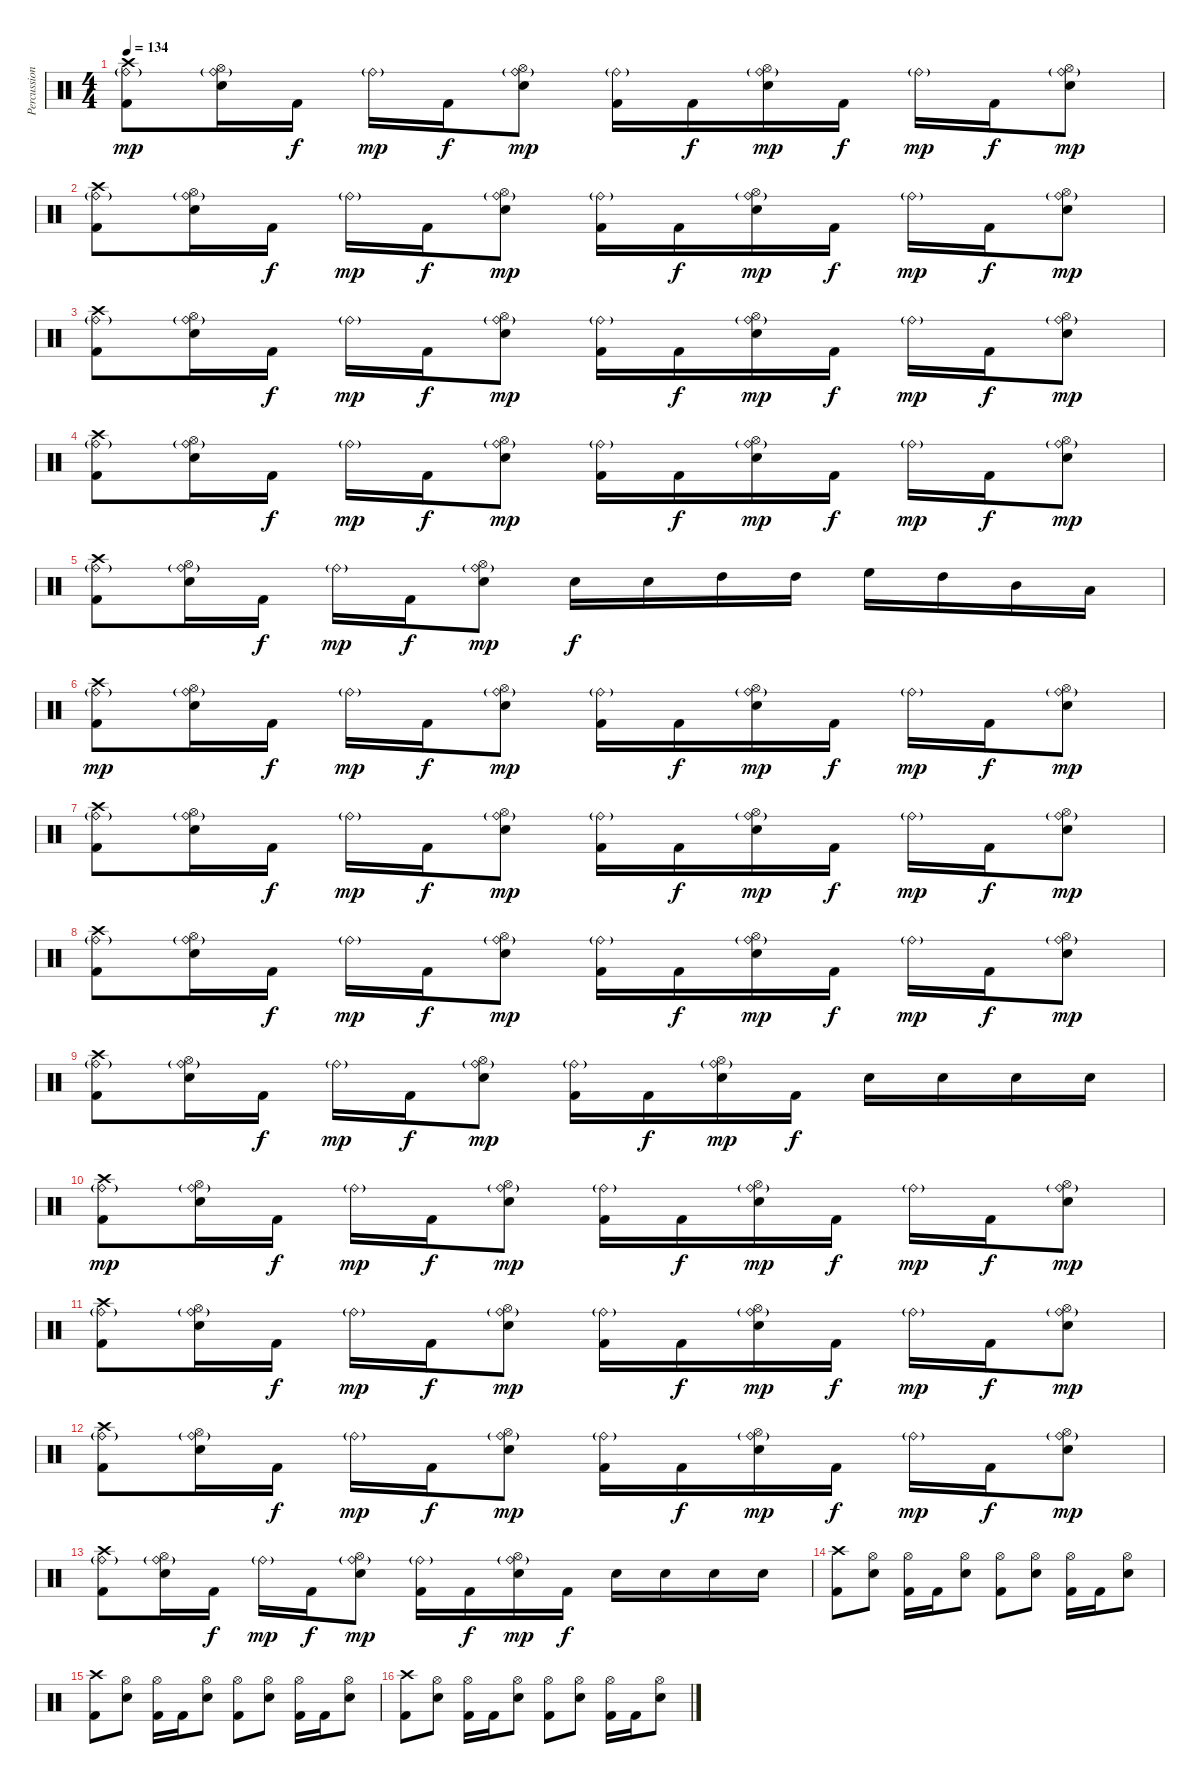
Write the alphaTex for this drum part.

\track ("Percussion" "Percussion") {instrument percussion}
\staff {score}
\articulation defaults
\ts (4 4)
\tempo 134
\clef neutral
\ks aminor
("Crash high (hit)" "Ride (bell)"{g} "Kick (hit) 2").8{dy mp} ("Hi-Hat (open)" "Ride (bell)"{g} "Electric Snare (hit)").16 "Kick (hit) 2".16{dy f} "Ride (bell)"{g}.16{dy mp} "Kick (hit) 2".16{dy f} ("Hi-Hat (open)" "Ride (bell)"{g} "Electric Snare (hit)").8{dy mp} ("Ride (bell)"{g} "Kick (hit) 2").16 "Kick (hit) 2".16{dy f} ("Hi-Hat (open)" "Ride (bell)"{g} "Electric Snare (hit)").16{dy mp} "Kick (hit) 2".16{dy f} "Ride (bell)"{g}.16{dy mp} "Kick (hit) 2".16{dy f} ("Hi-Hat (open)" "Ride (bell)"{g} "Electric Snare (hit)").8{dy mp} |
("Crash high (hit)" "Ride (bell)"{g} "Kick (hit) 2").8 ("Hi-Hat (open)" "Ride (bell)"{g} "Electric Snare (hit)").16 "Kick (hit) 2".16{dy f} "Ride (bell)"{g}.16{dy mp} "Kick (hit) 2".16{dy f} ("Hi-Hat (open)" "Ride (bell)"{g} "Electric Snare (hit)").8{dy mp} ("Ride (bell)"{g} "Kick (hit) 2").16 "Kick (hit) 2".16{dy f} ("Hi-Hat (open)" "Ride (bell)"{g} "Electric Snare (hit)").16{dy mp} "Kick (hit) 2".16{dy f} "Ride (bell)"{g}.16{dy mp} "Kick (hit) 2".16{dy f} ("Hi-Hat (open)" "Ride (bell)"{g} "Electric Snare (hit)").8{dy mp} |
("Crash high (hit)" "Ride (bell)"{g} "Kick (hit) 2").8 ("Hi-Hat (open)" "Ride (bell)"{g} "Electric Snare (hit)").16 "Kick (hit) 2".16{dy f} "Ride (bell)"{g}.16{dy mp} "Kick (hit) 2".16{dy f} ("Hi-Hat (open)" "Ride (bell)"{g} "Electric Snare (hit)").8{dy mp} ("Ride (bell)"{g} "Kick (hit) 2").16 "Kick (hit) 2".16{dy f} ("Hi-Hat (open)" "Ride (bell)"{g} "Electric Snare (hit)").16{dy mp} "Kick (hit) 2".16{dy f} "Ride (bell)"{g}.16{dy mp} "Kick (hit) 2".16{dy f} ("Hi-Hat (open)" "Ride (bell)"{g} "Electric Snare (hit)").8{dy mp} |
("Crash high (hit)" "Ride (bell)"{g} "Kick (hit) 2").8 ("Hi-Hat (open)" "Ride (bell)"{g} "Electric Snare (hit)").16 "Kick (hit) 2".16{dy f} "Ride (bell)"{g}.16{dy mp} "Kick (hit) 2".16{dy f} ("Hi-Hat (open)" "Ride (bell)"{g} "Electric Snare (hit)").8{dy mp} ("Ride (bell)"{g} "Kick (hit) 2").16 "Kick (hit) 2".16{dy f} ("Hi-Hat (open)" "Ride (bell)"{g} "Electric Snare (hit)").16{dy mp} "Kick (hit) 2".16{dy f} "Ride (bell)"{g}.16{dy mp} "Kick (hit) 2".16{dy f} ("Hi-Hat (open)" "Ride (bell)"{g} "Electric Snare (hit)").8{dy mp} |
("Crash high (hit)" "Ride (bell)"{g} "Kick (hit) 2").8 ("Hi-Hat (open)" "Ride (bell)"{g} "Electric Snare (hit)").16 "Kick (hit) 2".16{dy f} "Ride (bell)"{g}.16{dy mp} "Kick (hit) 2".16{dy f} ("Hi-Hat (open)" "Ride (bell)"{g} "Electric Snare (hit)").8{dy mp} "Electric Snare (hit)".16{dy f} "Electric Snare (hit)".16 "High Tom (hit)".16 "High Tom (hit)".16 "High Floor Tom (hit)".16 "High Tom (hit)".16 "Mid Tom (hit)".16 "Low Tom (hit)".16 |
("Crash high (hit)" "Ride (bell)"{g} "Kick (hit) 2").8{dy mp} ("Hi-Hat (open)" "Ride (bell)"{g} "Electric Snare (hit)").16 "Kick (hit) 2".16{dy f} "Ride (bell)"{g}.16{dy mp} "Kick (hit) 2".16{dy f} ("Hi-Hat (open)" "Ride (bell)"{g} "Electric Snare (hit)").8{dy mp} ("Ride (bell)"{g} "Kick (hit) 2").16 "Kick (hit) 2".16{dy f} ("Hi-Hat (open)" "Ride (bell)"{g} "Electric Snare (hit)").16{dy mp} "Kick (hit) 2".16{dy f} "Ride (bell)"{g}.16{dy mp} "Kick (hit) 2".16{dy f} ("Hi-Hat (open)" "Ride (bell)"{g} "Electric Snare (hit)").8{dy mp} |
("Crash high (hit)" "Ride (bell)"{g} "Kick (hit) 2").8 ("Hi-Hat (open)" "Ride (bell)"{g} "Electric Snare (hit)").16 "Kick (hit) 2".16{dy f} "Ride (bell)"{g}.16{dy mp} "Kick (hit) 2".16{dy f} ("Hi-Hat (open)" "Ride (bell)"{g} "Electric Snare (hit)").8{dy mp} ("Ride (bell)"{g} "Kick (hit) 2").16 "Kick (hit) 2".16{dy f} ("Hi-Hat (open)" "Ride (bell)"{g} "Electric Snare (hit)").16{dy mp} "Kick (hit) 2".16{dy f} "Ride (bell)"{g}.16{dy mp} "Kick (hit) 2".16{dy f} ("Hi-Hat (open)" "Ride (bell)"{g} "Electric Snare (hit)").8{dy mp} |
("Crash high (hit)" "Ride (bell)"{g} "Kick (hit) 2").8 ("Hi-Hat (open)" "Ride (bell)"{g} "Electric Snare (hit)").16 "Kick (hit) 2".16{dy f} "Ride (bell)"{g}.16{dy mp} "Kick (hit) 2".16{dy f} ("Hi-Hat (open)" "Ride (bell)"{g} "Electric Snare (hit)").8{dy mp} ("Ride (bell)"{g} "Kick (hit) 2").16 "Kick (hit) 2".16{dy f} ("Hi-Hat (open)" "Ride (bell)"{g} "Electric Snare (hit)").16{dy mp} "Kick (hit) 2".16{dy f} "Ride (bell)"{g}.16{dy mp} "Kick (hit) 2".16{dy f} ("Hi-Hat (open)" "Ride (bell)"{g} "Electric Snare (hit)").8{dy mp} |
("Crash high (hit)" "Ride (bell)"{g} "Kick (hit) 2").8 ("Hi-Hat (open)" "Ride (bell)"{g} "Electric Snare (hit)").16 "Kick (hit) 2".16{dy f} "Ride (bell)"{g}.16{dy mp} "Kick (hit) 2".16{dy f} ("Hi-Hat (open)" "Ride (bell)"{g} "Electric Snare (hit)").8{dy mp} ("Ride (bell)"{g} "Kick (hit) 2").16 "Kick (hit) 2".16{dy f} ("Hi-Hat (open)" "Ride (bell)"{g} "Electric Snare (hit)").16{dy mp} "Kick (hit) 2".16{dy f} "Electric Snare (hit)".16 "Electric Snare (hit)".16 "Electric Snare (hit)".16 "Electric Snare (hit)".16 |
("Crash high (hit)" "Ride (bell)"{g} "Kick (hit) 2").8{dy mp} ("Hi-Hat (open)" "Ride (bell)"{g} "Electric Snare (hit)").16 "Kick (hit) 2".16{dy f} "Ride (bell)"{g}.16{dy mp} "Kick (hit) 2".16{dy f} ("Hi-Hat (open)" "Ride (bell)"{g} "Electric Snare (hit)").8{dy mp} ("Ride (bell)"{g} "Kick (hit) 2").16 "Kick (hit) 2".16{dy f} ("Hi-Hat (open)" "Ride (bell)"{g} "Electric Snare (hit)").16{dy mp} "Kick (hit) 2".16{dy f} "Ride (bell)"{g}.16{dy mp} "Kick (hit) 2".16{dy f} ("Hi-Hat (open)" "Ride (bell)"{g} "Electric Snare (hit)").8{dy mp} |
("Crash high (hit)" "Ride (bell)"{g} "Kick (hit) 2").8 ("Hi-Hat (open)" "Ride (bell)"{g} "Electric Snare (hit)").16 "Kick (hit) 2".16{dy f} "Ride (bell)"{g}.16{dy mp} "Kick (hit) 2".16{dy f} ("Hi-Hat (open)" "Ride (bell)"{g} "Electric Snare (hit)").8{dy mp} ("Ride (bell)"{g} "Kick (hit) 2").16 "Kick (hit) 2".16{dy f} ("Hi-Hat (open)" "Ride (bell)"{g} "Electric Snare (hit)").16{dy mp} "Kick (hit) 2".16{dy f} "Ride (bell)"{g}.16{dy mp} "Kick (hit) 2".16{dy f} ("Hi-Hat (open)" "Ride (bell)"{g} "Electric Snare (hit)").8{dy mp} |
("Crash high (hit)" "Ride (bell)"{g} "Kick (hit) 2").8 ("Hi-Hat (open)" "Ride (bell)"{g} "Electric Snare (hit)").16 "Kick (hit) 2".16{dy f} "Ride (bell)"{g}.16{dy mp} "Kick (hit) 2".16{dy f} ("Hi-Hat (open)" "Ride (bell)"{g} "Electric Snare (hit)").8{dy mp} ("Ride (bell)"{g} "Kick (hit) 2").16 "Kick (hit) 2".16{dy f} ("Hi-Hat (open)" "Ride (bell)"{g} "Electric Snare (hit)").16{dy mp} "Kick (hit) 2".16{dy f} "Ride (bell)"{g}.16{dy mp} "Kick (hit) 2".16{dy f} ("Hi-Hat (open)" "Ride (bell)"{g} "Electric Snare (hit)").8{dy mp} |
("Crash high (hit)" "Ride (bell)"{g} "Kick (hit) 2").8 ("Hi-Hat (open)" "Ride (bell)"{g} "Electric Snare (hit)").16 "Kick (hit) 2".16{dy f} "Ride (bell)"{g}.16{dy mp} "Kick (hit) 2".16{dy f} ("Hi-Hat (open)" "Ride (bell)"{g} "Electric Snare (hit)").8{dy mp} ("Ride (bell)"{g} "Kick (hit) 2").16 "Kick (hit) 2".16{dy f} ("Hi-Hat (open)" "Ride (bell)"{g} "Electric Snare (hit)").16{dy mp} "Kick (hit) 2".16{dy f} "Electric Snare (hit)".16 "Electric Snare (hit)".16 "Electric Snare (hit)".16 "Electric Snare (hit)".16 |
("Crash high (hit)" "Kick (hit) 2").8 ("Hi-Hat (open)" "Electric Snare (hit)").8 ("Hi-Hat (open)" "Kick (hit) 2").16 "Kick (hit) 2".16 ("Hi-Hat (open)" "Electric Snare (hit)").8 ("Hi-Hat (open)" "Kick (hit) 2").8 ("Hi-Hat (open)" "Electric Snare (hit)").8 ("Hi-Hat (open)" "Kick (hit) 2").16 "Kick (hit) 2".16 ("Hi-Hat (open)" "Electric Snare (hit)").8 |
("Crash high (hit)" "Kick (hit) 2").8 ("Hi-Hat (open)" "Electric Snare (hit)").8 ("Hi-Hat (open)" "Kick (hit) 2").16 "Kick (hit) 2".16 ("Hi-Hat (open)" "Electric Snare (hit)").8 ("Hi-Hat (open)" "Kick (hit) 2").8 ("Hi-Hat (open)" "Electric Snare (hit)").8 ("Hi-Hat (open)" "Kick (hit) 2").16 "Kick (hit) 2".16 ("Hi-Hat (open)" "Electric Snare (hit)").8 |
("Crash high (hit)" "Kick (hit) 2").8 ("Hi-Hat (open)" "Electric Snare (hit)").8 ("Hi-Hat (open)" "Kick (hit) 2").16 "Kick (hit) 2".16 ("Hi-Hat (open)" "Electric Snare (hit)").8 ("Hi-Hat (open)" "Kick (hit) 2").8 ("Hi-Hat (open)" "Electric Snare (hit)").8 ("Hi-Hat (open)" "Kick (hit) 2").16 "Kick (hit) 2".16 ("Hi-Hat (open)" "Electric Snare (hit)").8
